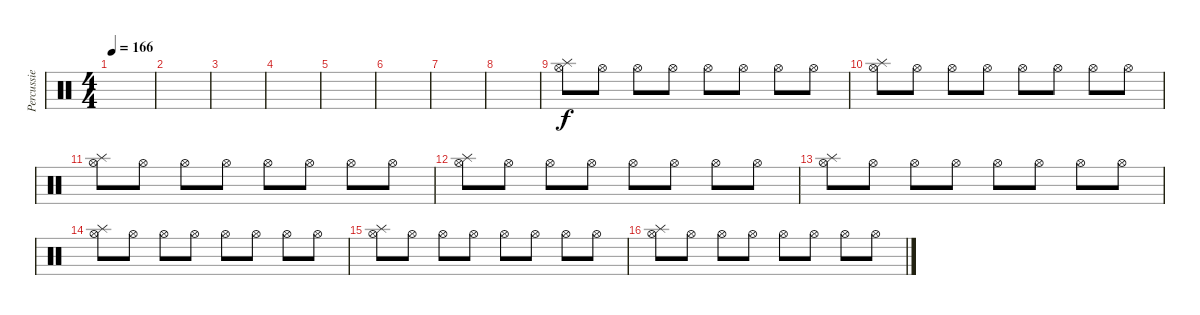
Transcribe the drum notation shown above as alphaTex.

\track ("Percussie" "Percussie") {instrument percussion}
\staff {score}
\articulation defaults
\ts (4 4)
\tempo 166
\clef neutral
\ks c
|
|
|
|
|
|
|
|
("Hi-Hat (open)" "Splash (hit)").8 "Hi-Hat (open)".8 "Hi-Hat (open)".8 "Hi-Hat (open)".8 "Hi-Hat (open)".8 "Hi-Hat (open)".8 "Hi-Hat (open)".8 "Hi-Hat (open)".8 |
("Hi-Hat (open)" "Splash (hit)").8 "Hi-Hat (open)".8 "Hi-Hat (open)".8 "Hi-Hat (open)".8 "Hi-Hat (open)".8 "Hi-Hat (open)".8 "Hi-Hat (open)".8 "Hi-Hat (open)".8 |
("Hi-Hat (open)" "Splash (hit)").8 "Hi-Hat (open)".8 "Hi-Hat (open)".8 "Hi-Hat (open)".8 "Hi-Hat (open)".8 "Hi-Hat (open)".8 "Hi-Hat (open)".8 "Hi-Hat (open)".8 |
("Hi-Hat (open)" "Splash (hit)").8 "Hi-Hat (open)".8 "Hi-Hat (open)".8 "Hi-Hat (open)".8 "Hi-Hat (open)".8 "Hi-Hat (open)".8 "Hi-Hat (open)".8 "Hi-Hat (open)".8 |
("Hi-Hat (open)" "Splash (hit)").8 "Hi-Hat (open)".8 "Hi-Hat (open)".8 "Hi-Hat (open)".8 "Hi-Hat (open)".8 "Hi-Hat (open)".8 "Hi-Hat (open)".8 "Hi-Hat (open)".8 |
("Hi-Hat (open)" "Splash (hit)").8 "Hi-Hat (open)".8 "Hi-Hat (open)".8 "Hi-Hat (open)".8 "Hi-Hat (open)".8 "Hi-Hat (open)".8 "Hi-Hat (open)".8 "Hi-Hat (open)".8 |
("Hi-Hat (open)" "Splash (hit)").8 "Hi-Hat (open)".8 "Hi-Hat (open)".8 "Hi-Hat (open)".8 "Hi-Hat (open)".8 "Hi-Hat (open)".8 "Hi-Hat (open)".8 "Hi-Hat (open)".8 |
("Hi-Hat (open)" "Splash (hit)").8 "Hi-Hat (open)".8 "Hi-Hat (open)".8 "Hi-Hat (open)".8 "Hi-Hat (open)".8 "Hi-Hat (open)".8 "Hi-Hat (open)".8 "Hi-Hat (open)".8
